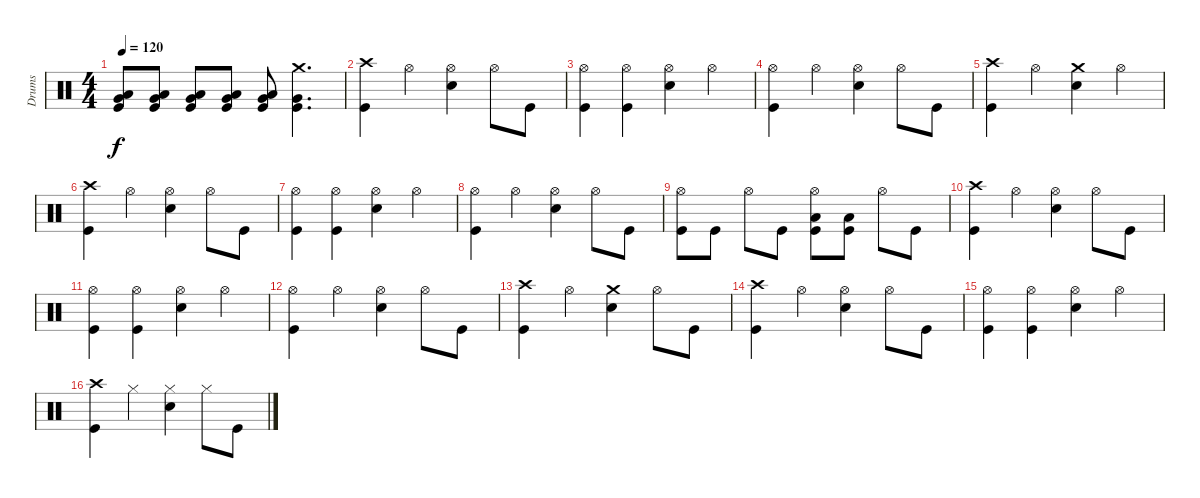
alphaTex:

\track ("Drums" "Drums") {instrument percussion}
\staff {score}
\articulation defaults
\ts (4 4)
\tempo 120
\clef neutral
\ks c
("Very Low Tom (hit)" "Low Tom (hit)" "Kick (hit)").8{dy f} ("Very Low Tom (hit)" "Low Tom (hit)" "Kick (hit)").8 ("Very Low Tom (hit)" "Low Tom (hit)" "Kick (hit)").8 ("Very Low Tom (hit)" "Low Tom (hit)" "Kick (hit)").8 ("Very Low Tom (hit)" "Low Tom (hit)" "Kick (hit)").8 ("Crash medium (hit)" "Very Low Tom (hit)" "Kick (hit)").4{d} |
("Crash high (hit)" "Kick (hit)").4 "Hi-Hat (open)".4 ("Hi-Hat (open)" "Snare (hit) 2").4 "Hi-Hat (open)".8 "Kick (hit)".8 |
("Hi-Hat (open)" "Kick (hit)").4 ("Hi-Hat (open)" "Kick (hit)").4 ("Hi-Hat (open)" "Snare (hit) 2").4 "Hi-Hat (open)".4 |
("Hi-Hat (open)" "Kick (hit)").4 "Hi-Hat (open)".4 ("Hi-Hat (open)" "Snare (hit) 2").4 "Hi-Hat (open)".8 "Kick (hit)".8 |
("Crash high (hit)" "Kick (hit)").4 "Hi-Hat (open)".4 ("Crash medium (hit)" "Snare (hit) 2").4 "Hi-Hat (open)".4 |
("Crash high (hit)" "Kick (hit)").4 "Hi-Hat (open)".4 ("Hi-Hat (open)" "Snare (hit) 2").4 "Hi-Hat (open)".8 "Kick (hit)".8 |
("Hi-Hat (open)" "Kick (hit)").4 ("Hi-Hat (open)" "Kick (hit)").4 ("Hi-Hat (open)" "Snare (hit) 2").4 "Hi-Hat (open)".4 |
("Hi-Hat (open)" "Kick (hit)").4 "Hi-Hat (open)".4 ("Hi-Hat (open)" "Snare (hit) 2").4 "Hi-Hat (open)".8 "Kick (hit)".8 |
("Hi-Hat (open)" "Kick (hit)").8 "Kick (hit)".8 "Hi-Hat (open)".8 "Kick (hit)".8 ("Hi-Hat (open)" "Kick (hit)" "Low Tom (hit)").8 ("Kick (hit)" "Low Tom (hit)").8 "Hi-Hat (open)".8 "Kick (hit)".8 |
("Crash high (hit)" "Kick (hit)").4 "Hi-Hat (open)".4 ("Hi-Hat (open)" "Snare (hit) 2").4 "Hi-Hat (open)".8 "Kick (hit)".8 |
("Hi-Hat (open)" "Kick (hit)").4 ("Hi-Hat (open)" "Kick (hit)").4 ("Hi-Hat (open)" "Snare (hit) 2").4 "Hi-Hat (open)".4 |
("Hi-Hat (open)" "Kick (hit)").4 "Hi-Hat (open)".4 ("Hi-Hat (open)" "Snare (hit) 2").4 "Hi-Hat (open)".8 "Kick (hit)".8 |
("Crash high (hit)" "Kick (hit)").4 "Hi-Hat (open)".4 ("Crash medium (hit)" "Snare (hit) 2").4 "Hi-Hat (open)".8 "Kick (hit)".8 |
("Crash high (hit)" "Kick (hit)").4 "Hi-Hat (open)".4 ("Hi-Hat (open)" "Snare (hit) 2").4 "Hi-Hat (open)".8 "Kick (hit)".8 |
("Hi-Hat (open)" "Kick (hit)").4 ("Hi-Hat (open)" "Kick (hit)").4 ("Hi-Hat (open)" "Snare (hit) 2").4 "Hi-Hat (open)".4 |
("Crash high (hit)" "Kick (hit)").4 "Hi-Hat (closed)".4 ("Hi-Hat (closed)" "Snare (hit) 2").4 "Hi-Hat (closed)".8 "Kick (hit)".8
